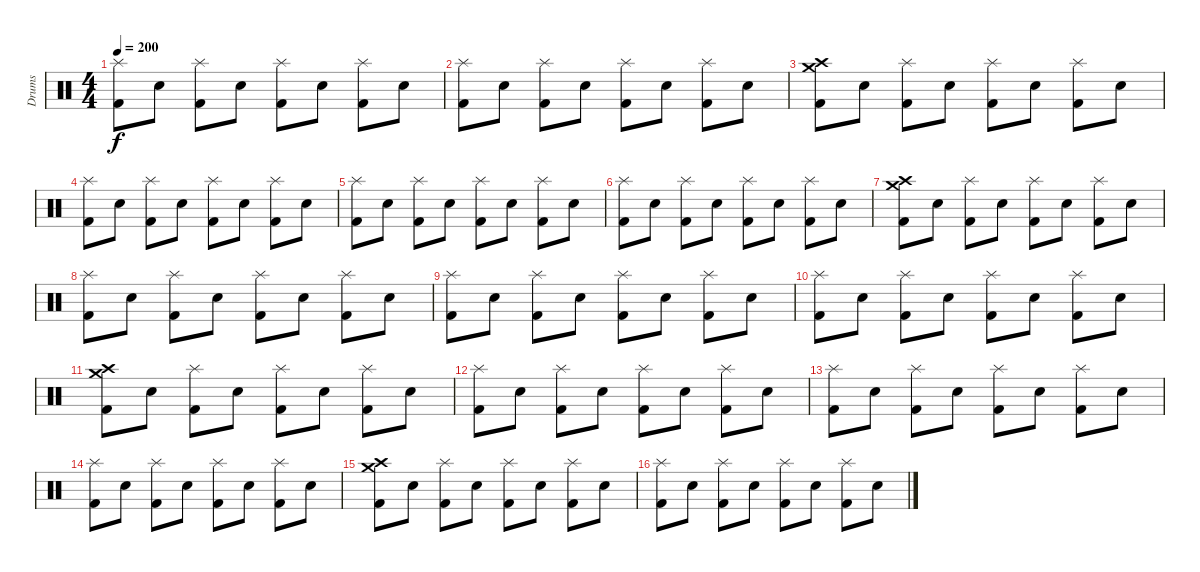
\track ("Drums" "Drums") {instrument percussion}
\staff {score}
\articulation defaults
\ts (4 4)
\tempo 200
\clef neutral
\ks c
("Splash (hit)" "Kick (hit) 2").8{dy f} "Snare (hit) 2".8 ("Splash (hit)" "Kick (hit) 2").8 "Snare (hit) 2".8 ("Splash (hit)" "Kick (hit) 2").8 "Snare (hit) 2".8 ("Splash (hit)" "Kick (hit) 2").8 "Snare (hit) 2".8 |
("Splash (hit)" "Kick (hit) 2").8 "Snare (hit) 2".8 ("Splash (hit)" "Kick (hit) 2").8 "Snare (hit) 2".8 ("Splash (hit)" "Kick (hit) 2").8 "Snare (hit) 2".8 ("Splash (hit)" "Kick (hit) 2").8 "Snare (hit) 2".8 |
("Crash medium (hit)" "Crash high (hit)" "Kick (hit) 2").8 "Snare (hit) 2".8 ("Splash (hit)" "Kick (hit) 2").8 "Snare (hit) 2".8 ("Splash (hit)" "Kick (hit) 2").8 "Snare (hit) 2".8 ("Splash (hit)" "Kick (hit) 2").8 "Snare (hit) 2".8 |
("Splash (hit)" "Kick (hit) 2").8 "Snare (hit) 2".8 ("Splash (hit)" "Kick (hit) 2").8 "Snare (hit) 2".8 ("Splash (hit)" "Kick (hit) 2").8 "Snare (hit) 2".8 ("Splash (hit)" "Kick (hit) 2").8 "Snare (hit) 2".8 |
("Splash (hit)" "Kick (hit) 2").8 "Snare (hit) 2".8 ("Splash (hit)" "Kick (hit) 2").8 "Snare (hit) 2".8 ("Splash (hit)" "Kick (hit) 2").8 "Snare (hit) 2".8 ("Splash (hit)" "Kick (hit) 2").8 "Snare (hit) 2".8 |
("Splash (hit)" "Kick (hit) 2").8 "Snare (hit) 2".8 ("Splash (hit)" "Kick (hit) 2").8 "Snare (hit) 2".8 ("Splash (hit)" "Kick (hit) 2").8 "Snare (hit) 2".8 ("Splash (hit)" "Kick (hit) 2").8 "Snare (hit) 2".8 |
("Crash medium (hit)" "Crash high (hit)" "Kick (hit) 2").8 "Snare (hit) 2".8 ("Splash (hit)" "Kick (hit) 2").8 "Snare (hit) 2".8 ("Splash (hit)" "Kick (hit) 2").8 "Snare (hit) 2".8 ("Splash (hit)" "Kick (hit) 2").8 "Snare (hit) 2".8 |
("Splash (hit)" "Kick (hit) 2").8 "Snare (hit) 2".8 ("Splash (hit)" "Kick (hit) 2").8 "Snare (hit) 2".8 ("Splash (hit)" "Kick (hit) 2").8 "Snare (hit) 2".8 ("Splash (hit)" "Kick (hit) 2").8 "Snare (hit) 2".8 |
("Splash (hit)" "Kick (hit) 2").8 "Snare (hit) 2".8 ("Splash (hit)" "Kick (hit) 2").8 "Snare (hit) 2".8 ("Splash (hit)" "Kick (hit) 2").8 "Snare (hit) 2".8 ("Splash (hit)" "Kick (hit) 2").8 "Snare (hit) 2".8 |
("Splash (hit)" "Kick (hit) 2").8 "Snare (hit) 2".8 ("Splash (hit)" "Kick (hit) 2").8 "Snare (hit) 2".8 ("Splash (hit)" "Kick (hit) 2").8 "Snare (hit) 2".8 ("Splash (hit)" "Kick (hit) 2").8 "Snare (hit) 2".8 |
("Crash medium (hit)" "Crash high (hit)" "Kick (hit) 2").8 "Snare (hit) 2".8 ("Splash (hit)" "Kick (hit) 2").8 "Snare (hit) 2".8 ("Splash (hit)" "Kick (hit) 2").8 "Snare (hit) 2".8 ("Splash (hit)" "Kick (hit) 2").8 "Snare (hit) 2".8 |
("Splash (hit)" "Kick (hit) 2").8 "Snare (hit) 2".8 ("Splash (hit)" "Kick (hit) 2").8 "Snare (hit) 2".8 ("Splash (hit)" "Kick (hit) 2").8 "Snare (hit) 2".8 ("Splash (hit)" "Kick (hit) 2").8 "Snare (hit) 2".8 |
("Splash (hit)" "Kick (hit) 2").8 "Snare (hit) 2".8 ("Splash (hit)" "Kick (hit) 2").8 "Snare (hit) 2".8 ("Splash (hit)" "Kick (hit) 2").8 "Snare (hit) 2".8 ("Splash (hit)" "Kick (hit) 2").8 "Snare (hit) 2".8 |
("Splash (hit)" "Kick (hit) 2").8 "Snare (hit) 2".8 ("Splash (hit)" "Kick (hit) 2").8 "Snare (hit) 2".8 ("Splash (hit)" "Kick (hit) 2").8 "Snare (hit) 2".8 ("Splash (hit)" "Kick (hit) 2").8 "Snare (hit) 2".8 |
("Crash medium (hit)" "Crash high (hit)" "Kick (hit) 2").8 "Snare (hit) 2".8 ("Splash (hit)" "Kick (hit) 2").8 "Snare (hit) 2".8 ("Splash (hit)" "Kick (hit) 2").8 "Snare (hit) 2".8 ("Splash (hit)" "Kick (hit) 2").8 "Snare (hit) 2".8 |
("Splash (hit)" "Kick (hit) 2").8 "Snare (hit) 2".8 ("Splash (hit)" "Kick (hit) 2").8 "Snare (hit) 2".8 ("Splash (hit)" "Kick (hit) 2").8 "Snare (hit) 2".8 ("Splash (hit)" "Kick (hit) 2").8 "Snare (hit) 2".8
